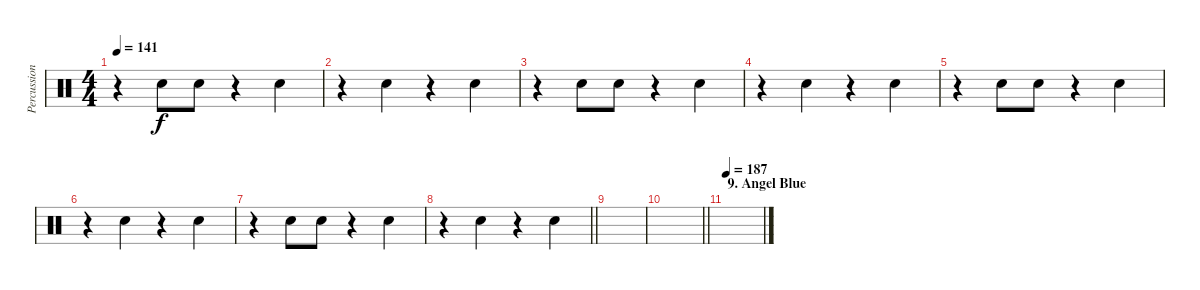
\track ("Percussion" "Percussion") {instrument percussion}
\staff {score}
\articulation defaults
\ts (4 4)
\tempo 141
\clef neutral
\ks c
r.4{dy f} "Hand Clap (hit)".8 "Hand Clap (hit)".8 r.4 "Hand Clap (hit)".4 |
r.4 "Hand Clap (hit)".4 r.4 "Hand Clap (hit)".4 |
r.4 "Hand Clap (hit)".8 "Hand Clap (hit)".8 r.4 "Hand Clap (hit)".4 |
r.4 "Hand Clap (hit)".4 r.4 "Hand Clap (hit)".4 |
r.4 "Hand Clap (hit)".8 "Hand Clap (hit)".8 r.4 "Hand Clap (hit)".4 |
r.4 "Hand Clap (hit)".4 r.4 "Hand Clap (hit)".4 |
r.4 "Hand Clap (hit)".8 "Hand Clap (hit)".8 r.4 "Hand Clap (hit)".4 |
\barLineRight lightlight
r.4 "Hand Clap (hit)".4 r.4 "Hand Clap (hit)".4 |
|
\barLineRight lightlight
|
\section ("" "9. Angel Blue")
\tempo 187
